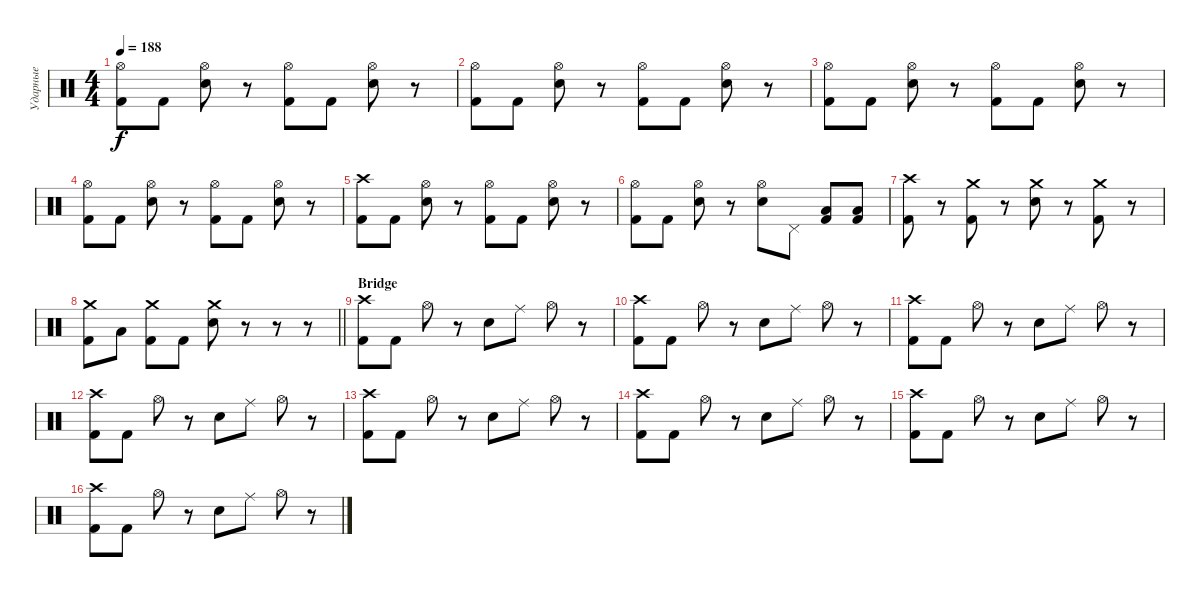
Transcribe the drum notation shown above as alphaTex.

\track ("Ударные" "Ударные") {instrument percussion}
\staff {score}
\articulation defaults
\ts (4 4)
\tempo 188
\clef neutral
\ks c
("Hi-Hat (open)" "Kick (hit) 2").8{dy f} "Kick (hit) 2".8 ("Hi-Hat (open)" "Electric Snare (hit)").8 r.8 ("Hi-Hat (open)" "Kick (hit) 2").8 "Kick (hit) 2".8 ("Hi-Hat (open)" "Electric Snare (hit)").8 r.8 |
("Hi-Hat (open)" "Kick (hit) 2").8 "Kick (hit) 2".8 ("Hi-Hat (open)" "Electric Snare (hit)").8 r.8 ("Hi-Hat (open)" "Kick (hit) 2").8 "Kick (hit) 2".8 ("Hi-Hat (open)" "Electric Snare (hit)").8 r.8 |
("Hi-Hat (open)" "Kick (hit) 2").8 "Kick (hit) 2".8 ("Hi-Hat (open)" "Electric Snare (hit)").8 r.8 ("Hi-Hat (open)" "Kick (hit) 2").8 "Kick (hit) 2".8 ("Hi-Hat (open)" "Electric Snare (hit)").8 r.8 |
("Hi-Hat (open)" "Kick (hit) 2").8 "Kick (hit) 2".8 ("Hi-Hat (open)" "Electric Snare (hit)").8 r.8 ("Hi-Hat (open)" "Kick (hit) 2").8 "Kick (hit) 2".8 ("Hi-Hat (open)" "Electric Snare (hit)").8 r.8 |
("Crash high (hit)" "Kick (hit) 2").8 "Kick (hit) 2".8 ("Hi-Hat (open)" "Electric Snare (hit)").8 r.8 ("Hi-Hat (open)" "Kick (hit) 2").8 "Kick (hit) 2".8 ("Hi-Hat (open)" "Electric Snare (hit)").8 r.8 |
("Hi-Hat (open)" "Kick (hit) 2").8 "Kick (hit) 2".8 ("Hi-Hat (open)" "Electric Snare (hit)").8 r.8 ("Hi-Hat (open)" "Electric Snare (hit)").8 "Pedal Hi-Hat (hit)".8 ("Low Tom (hit)" "Kick (hit) 2").8 ("Low Tom (hit)" "Kick (hit) 2").8 |
("Crash high (hit)" "Kick (hit) 2").8 r.8 ("Crash medium (hit)" "Kick (hit) 2").8 r.8 ("Crash medium (hit)" "Electric Snare (hit)").8 r.8 ("Crash medium (hit)" "Kick (hit) 2").8 r.8 |
\barLineRight lightlight
("Crash medium (hit)" "Kick (hit) 2").8 "Low Tom (hit)".8 ("Crash medium (hit)" "Kick (hit) 2").8 "Kick (hit) 2".8 ("Crash medium (hit)" "Electric Snare (hit)").8 r.8 r.8 r.8 |
\section ("" "Bridge")
("Crash high (hit)" "Kick (hit) 2").8 "Kick (hit) 2".8 "Hi-Hat (open)".8 r.8 "Electric Snare (hit)".8 "Ride (middle)".8 "Hi-Hat (open)".8 r.8 |
("Crash high (hit)" "Kick (hit) 2").8 "Kick (hit) 2".8 "Hi-Hat (open)".8 r.8 "Electric Snare (hit)".8 "Ride (middle)".8 "Hi-Hat (open)".8 r.8 |
("Crash high (hit)" "Kick (hit) 2").8 "Kick (hit) 2".8 "Hi-Hat (open)".8 r.8 "Electric Snare (hit)".8 "Ride (middle)".8 "Hi-Hat (open)".8 r.8 |
("Crash high (hit)" "Kick (hit) 2").8 "Kick (hit) 2".8 "Hi-Hat (open)".8 r.8 "Electric Snare (hit)".8 "Ride (middle)".8 "Hi-Hat (open)".8 r.8 |
("Crash high (hit)" "Kick (hit) 2").8 "Kick (hit) 2".8 "Hi-Hat (open)".8 r.8 "Electric Snare (hit)".8 "Ride (middle)".8 "Hi-Hat (open)".8 r.8 |
("Crash high (hit)" "Kick (hit) 2").8 "Kick (hit) 2".8 "Hi-Hat (open)".8 r.8 "Electric Snare (hit)".8 "Ride (middle)".8 "Hi-Hat (open)".8 r.8 |
("Crash high (hit)" "Kick (hit) 2").8 "Kick (hit) 2".8 "Hi-Hat (open)".8 r.8 "Electric Snare (hit)".8 "Ride (middle)".8 "Hi-Hat (open)".8 r.8 |
("Crash high (hit)" "Kick (hit) 2").8 "Kick (hit) 2".8 "Hi-Hat (open)".8 r.8 "Electric Snare (hit)".8 "Ride (middle)".8 "Hi-Hat (open)".8 r.8
